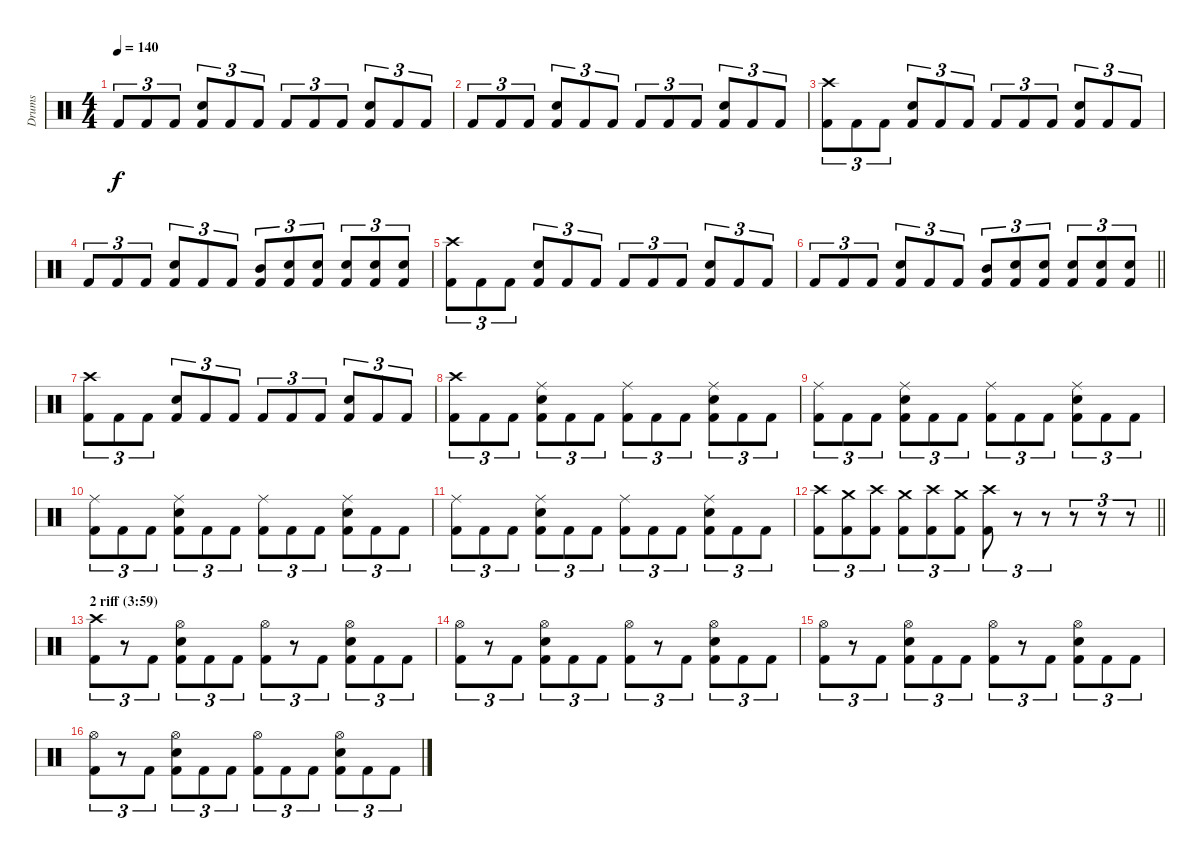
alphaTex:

\track ("Drums" "Drums") {instrument percussion}
\staff {score}
\articulation defaults
\ts (4 4)
\tempo 140
\clef neutral
\ks c "Kick (hit) 2".8{tu (3 2) dy f} "Kick (hit) 2".8{tu (3 2)} "Kick (hit) 2".8{tu (3 2)}
("Snare (hit) 2" "Kick (hit) 2").8{tu (3 2)} "Kick (hit) 2".8{tu (3 2)} "Kick (hit) 2".8{tu (3 2)} "Kick (hit) 2".8{tu (3 2)} "Kick (hit) 2".8{tu (3 2)} "Kick (hit) 2".8{tu (3 2)} ("Snare (hit) 2" "Kick (hit) 2").8{tu (3 2)} "Kick (hit) 2".8{tu (3 2)} "Kick (hit) 2".8{tu (3 2)} |
"Kick (hit) 2".8{tu (3 2)} "Kick (hit) 2".8{tu (3 2)} "Kick (hit) 2".8{tu (3 2)} ("Snare (hit) 2" "Kick (hit) 2").8{tu (3 2)} "Kick (hit) 2".8{tu (3 2)} "Kick (hit) 2".8{tu (3 2)} "Kick (hit) 2".8{tu (3 2)} "Kick (hit) 2".8{tu (3 2)} "Kick (hit) 2".8{tu (3 2)} ("Snare (hit) 2" "Kick (hit) 2").8{tu (3 2)} "Kick (hit) 2".8{tu (3 2)} "Kick (hit) 2".8{tu (3 2)} |
("Crash high (hit)" "Kick (hit) 2").8{tu (3 2)} "Kick (hit) 2".8{tu (3 2)} "Kick (hit) 2".8{tu (3 2)} ("Snare (hit) 2" "Kick (hit) 2").8{tu (3 2)} "Kick (hit) 2".8{tu (3 2)} "Kick (hit) 2".8{tu (3 2)} "Kick (hit) 2".8{tu (3 2)} "Kick (hit) 2".8{tu (3 2)} "Kick (hit) 2".8{tu (3 2)} ("Snare (hit) 2" "Kick (hit) 2").8{tu (3 2)} "Kick (hit) 2".8{tu (3 2)} "Kick (hit) 2".8{tu (3 2)} |
"Kick (hit) 2".8{tu (3 2)} "Kick (hit) 2".8{tu (3 2)} "Kick (hit) 2".8{tu (3 2)} ("Snare (hit) 2" "Kick (hit) 2").8{tu (3 2)} "Kick (hit) 2".8{tu (3 2)} "Kick (hit) 2".8{tu (3 2)} ("Mid Tom (hit)" "Kick (hit) 2").8{tu (3 2)} ("Snare (hit) 2" "Kick (hit) 2").8{tu (3 2)} ("Snare (hit) 2" "Kick (hit) 2").8{tu (3 2)} ("Snare (hit) 2" "Kick (hit) 2").8{tu (3 2)} ("Snare (hit) 2" "Kick (hit) 2").8{tu (3 2)} ("Snare (hit) 2" "Kick (hit) 2").8{tu (3 2)} |
("Crash high (hit)" "Kick (hit) 2").8{tu (3 2)} "Kick (hit) 2".8{tu (3 2)} "Kick (hit) 2".8{tu (3 2)} ("Snare (hit) 2" "Kick (hit) 2").8{tu (3 2)} "Kick (hit) 2".8{tu (3 2)} "Kick (hit) 2".8{tu (3 2)} "Kick (hit) 2".8{tu (3 2)} "Kick (hit) 2".8{tu (3 2)} "Kick (hit) 2".8{tu (3 2)} ("Snare (hit) 2" "Kick (hit) 2").8{tu (3 2)} "Kick (hit) 2".8{tu (3 2)} "Kick (hit) 2".8{tu (3 2)} |
\barLineRight lightlight "Kick (hit) 2".8{tu (3 2)} "Kick (hit) 2".8{tu (3 2)} "Kick (hit) 2".8{tu (3 2)}
("Snare (hit) 2" "Kick (hit) 2").8{tu (3 2)} "Kick (hit) 2".8{tu (3 2)} "Kick (hit) 2".8{tu (3 2)} ("Mid Tom (hit)" "Kick (hit) 2").8{tu (3 2)} ("Snare (hit) 2" "Kick (hit) 2").8{tu (3 2)} ("Snare (hit) 2" "Kick (hit) 2").8{tu (3 2)} ("Snare (hit) 2" "Kick (hit) 2").8{tu (3 2)} ("Snare (hit) 2" "Kick (hit) 2").8{tu (3 2)} ("Snare (hit) 2" "Kick (hit) 2").8{tu (3 2)} |
\section ("" "")
("Crash high (hit)" "Kick (hit) 2").8{tu (3 2)} "Kick (hit) 2".8{tu (3 2)} "Kick (hit) 2".8{tu (3 2)} ("Snare (hit) 2" "Kick (hit) 2").8{tu (3 2)} "Kick (hit) 2".8{tu (3 2)} "Kick (hit) 2".8{tu (3 2)} "Kick (hit) 2".8{tu (3 2)} "Kick (hit) 2".8{tu (3 2)} "Kick (hit) 2".8{tu (3 2)} ("Snare (hit) 2" "Kick (hit) 2").8{tu (3 2)} "Kick (hit) 2".8{tu (3 2)} "Kick (hit) 2".8{tu (3 2)} |
("Crash high (hit)" "Kick (hit) 2").8{tu (3 2)} "Kick (hit) 2".8{tu (3 2)} "Kick (hit) 2".8{tu (3 2)} ("Ride (middle)" "Snare (hit) 2" "Kick (hit) 2").8{tu (3 2)} "Kick (hit) 2".8{tu (3 2)} "Kick (hit) 2".8{tu (3 2)} ("Ride (middle)" "Kick (hit) 2").8{tu (3 2)} "Kick (hit) 2".8{tu (3 2)} "Kick (hit) 2".8{tu (3 2)} ("Ride (middle)" "Snare (hit) 2" "Kick (hit) 2").8{tu (3 2)} "Kick (hit) 2".8{tu (3 2)} "Kick (hit) 2".8{tu (3 2)} |
("Ride (middle)" "Kick (hit) 2").8{tu (3 2)} "Kick (hit) 2".8{tu (3 2)} "Kick (hit) 2".8{tu (3 2)} ("Ride (middle)" "Snare (hit) 2" "Kick (hit) 2").8{tu (3 2)} "Kick (hit) 2".8{tu (3 2)} "Kick (hit) 2".8{tu (3 2)} ("Ride (middle)" "Kick (hit) 2").8{tu (3 2)} "Kick (hit) 2".8{tu (3 2)} "Kick (hit) 2".8{tu (3 2)} ("Ride (middle)" "Snare (hit) 2" "Kick (hit) 2").8{tu (3 2)} "Kick (hit) 2".8{tu (3 2)} "Kick (hit) 2".8{tu (3 2)} |
("Ride (middle)" "Kick (hit) 2").8{tu (3 2)} "Kick (hit) 2".8{tu (3 2)} "Kick (hit) 2".8{tu (3 2)} ("Ride (middle)" "Snare (hit) 2" "Kick (hit) 2").8{tu (3 2)} "Kick (hit) 2".8{tu (3 2)} "Kick (hit) 2".8{tu (3 2)} ("Ride (middle)" "Kick (hit) 2").8{tu (3 2)} "Kick (hit) 2".8{tu (3 2)} "Kick (hit) 2".8{tu (3 2)} ("Ride (middle)" "Snare (hit) 2" "Kick (hit) 2").8{tu (3 2)} "Kick (hit) 2".8{tu (3 2)} "Kick (hit) 2".8{tu (3 2)} |
("Ride (middle)" "Kick (hit) 2").8{tu (3 2)} "Kick (hit) 2".8{tu (3 2)} "Kick (hit) 2".8{tu (3 2)} ("Ride (middle)" "Snare (hit) 2" "Kick (hit) 2").8{tu (3 2)} "Kick (hit) 2".8{tu (3 2)} "Kick (hit) 2".8{tu (3 2)} ("Ride (middle)" "Kick (hit) 2").8{tu (3 2)} "Kick (hit) 2".8{tu (3 2)} "Kick (hit) 2".8{tu (3 2)} ("Ride (middle)" "Snare (hit) 2" "Kick (hit) 2").8{tu (3 2)} "Kick (hit) 2".8{tu (3 2)} "Kick (hit) 2".8{tu (3 2)} |
\barLineRight lightlight
("Crash high (hit)" "Kick (hit) 2").8{tu (3 2)} ("Crash medium (hit)" "Kick (hit) 2").8{tu (3 2)} ("Crash high (hit)" "Kick (hit) 2").8{tu (3 2)} ("Crash medium (hit)" "Kick (hit) 2").8{tu (3 2)} ("Crash high (hit)" "Kick (hit) 2").8{tu (3 2)} ("Crash medium (hit)" "Kick (hit) 2").8{tu (3 2)} ("Crash high (hit)" "Kick (hit) 2").8{tu (3 2)} r.8{tu (3 2)} r.8{tu (3 2)} r.8{tu (3 2)} r.8{tu (3 2)} r.8{tu (3 2)} |
\section ("" "2 riff (3:59)")
("Crash high (hit)" "Kick (hit) 2").8{tu (3 2)} r.8{tu (3 2)} "Kick (hit) 2".8{tu (3 2)} ("Hi-Hat (open)" "Snare (hit) 2" "Kick (hit) 2").8{tu (3 2)} "Kick (hit) 2".8{tu (3 2)} "Kick (hit) 2".8{tu (3 2)} ("Hi-Hat (open)" "Kick (hit) 2").8{tu (3 2)} r.8{tu (3 2)} "Kick (hit) 2".8{tu (3 2)} ("Hi-Hat (open)" "Snare (hit) 2" "Kick (hit) 2").8{tu (3 2)} "Kick (hit) 2".8{tu (3 2)} "Kick (hit) 2".8{tu (3 2)} |
("Hi-Hat (open)" "Kick (hit) 2").8{tu (3 2)} r.8{tu (3 2)} "Kick (hit) 2".8{tu (3 2)} ("Hi-Hat (open)" "Snare (hit) 2" "Kick (hit) 2").8{tu (3 2)} "Kick (hit) 2".8{tu (3 2)} "Kick (hit) 2".8{tu (3 2)} ("Hi-Hat (open)" "Kick (hit) 2").8{tu (3 2)} r.8{tu (3 2)} "Kick (hit) 2".8{tu (3 2)} ("Hi-Hat (open)" "Snare (hit) 2" "Kick (hit) 2").8{tu (3 2)} "Kick (hit) 2".8{tu (3 2)} "Kick (hit) 2".8{tu (3 2)} |
("Hi-Hat (open)" "Kick (hit) 2").8{tu (3 2)} r.8{tu (3 2)} "Kick (hit) 2".8{tu (3 2)} ("Hi-Hat (open)" "Snare (hit) 2" "Kick (hit) 2").8{tu (3 2)} "Kick (hit) 2".8{tu (3 2)} "Kick (hit) 2".8{tu (3 2)} ("Hi-Hat (open)" "Kick (hit) 2").8{tu (3 2)} r.8{tu (3 2)} "Kick (hit) 2".8{tu (3 2)} ("Hi-Hat (open)" "Snare (hit) 2" "Kick (hit) 2").8{tu (3 2)} "Kick (hit) 2".8{tu (3 2)} "Kick (hit) 2".8{tu (3 2)} |
("Hi-Hat (open)" "Kick (hit) 2").8{tu (3 2)} r.8{tu (3 2)} "Kick (hit) 2".8{tu (3 2)} ("Hi-Hat (open)" "Snare (hit) 2" "Kick (hit) 2").8{tu (3 2)} "Kick (hit) 2".8{tu (3 2)} "Kick (hit) 2".8{tu (3 2)} ("Hi-Hat (open)" "Kick (hit) 2").8{tu (3 2)} "Kick (hit) 2".8{tu (3 2)} "Kick (hit) 2".8{tu (3 2)} ("Hi-Hat (open)" "Snare (hit) 2" "Kick (hit) 2").8{tu (3 2)} "Kick (hit) 2".8{tu (3 2)} "Kick (hit) 2".8{tu (3 2)}
